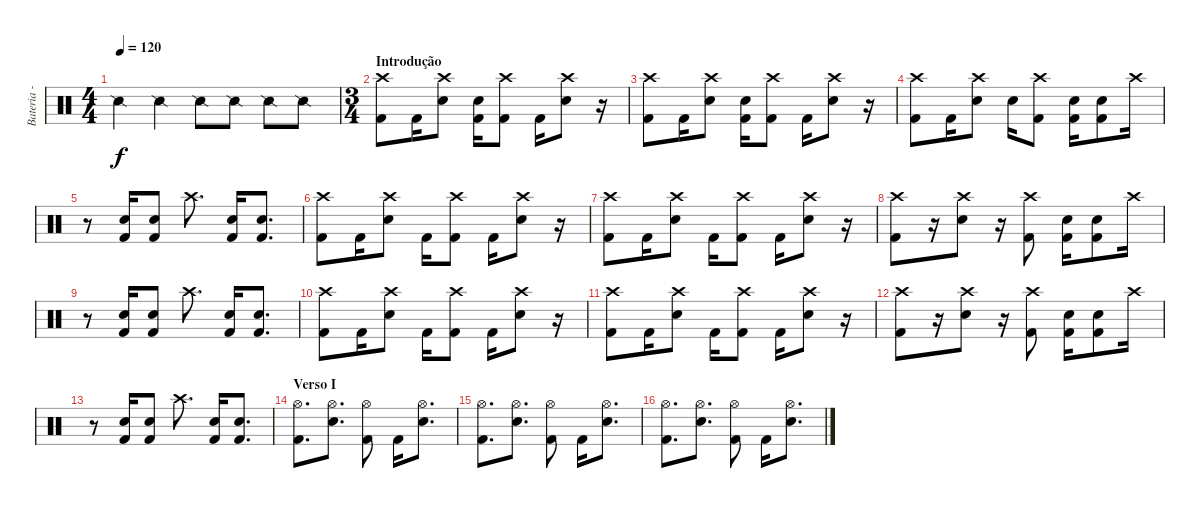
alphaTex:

\track ("Bateria - Larzon" "Bateria - ") {instrument percussion}
\staff {score}
\articulation defaults
\ts (4 4)
\tempo 120
\clef neutral
\ks c "Snare (side stick) 2".4{dy f} "Snare (side stick) 2".4 "Snare (side stick) 2".8 "Snare (side stick) 2".8 "Snare (side stick) 2".8 "Snare (side stick) 2".8
|
\ts (3 4)
\section ("" "Introdução")
("Kick (hit) 2" "Crash high (hit)").8 "Kick (hit) 2".16 ("Snare (hit) 2" "Crash high (hit)").8 ("Kick (hit) 2" "Snare (hit) 2").16 ("Kick (hit) 2" "Crash high (hit)").8 "Kick (hit) 2".16 ("Snare (hit) 2" "Crash high (hit)").8 r.16 |
("Kick (hit) 2" "Crash high (hit)").8 "Kick (hit) 2".16 ("Snare (hit) 2" "Crash high (hit)").8 ("Kick (hit) 2" "Snare (hit) 2").16 ("Kick (hit) 2" "Crash high (hit)").8 "Kick (hit) 2".16 ("Snare (hit) 2" "Crash high (hit)").8 r.16 |
("Kick (hit) 2" "Crash high (hit)").8 "Kick (hit) 2".16 ("Snare (hit) 2" "Crash high (hit)").8 "Snare (hit) 2".16 ("Kick (hit) 2" "Crash high (hit)").8 ("Snare (hit) 2" "Kick (hit) 2").16 ("Snare (hit) 2" "Kick (hit) 2").8 "Crash high (hit)".16 |
r.8 ("Snare (hit) 2" "Kick (hit) 2").16 ("Snare (hit) 2" "Kick (hit) 2").8 "Crash high (hit)".8{d} ("Snare (hit) 2" "Kick (hit) 2").16 ("Snare (hit) 2" "Kick (hit) 2").8{d} |
("Kick (hit) 2" "Crash high (hit)").8 "Kick (hit) 2".16 ("Snare (hit) 2" "Crash high (hit)").8 "Kick (hit) 2".16 ("Kick (hit) 2" "Crash high (hit)").8 "Kick (hit) 2".16 ("Snare (hit) 2" "Crash high (hit)").8 r.16 |
("Kick (hit) 2" "Crash high (hit)").8 "Kick (hit) 2".16 ("Snare (hit) 2" "Crash high (hit)").8 "Kick (hit) 2".16 ("Kick (hit) 2" "Crash high (hit)").8 "Kick (hit) 2".16 ("Snare (hit) 2" "Crash high (hit)").8 r.16 |
("Kick (hit) 2" "Crash high (hit)").8 r.16 ("Snare (hit) 2" "Crash high (hit)").8 r.16 ("Kick (hit) 2" "Crash high (hit)").8 ("Snare (hit) 2" "Kick (hit) 2").16 ("Snare (hit) 2" "Kick (hit) 2").8 "Crash high (hit)".16 |
r.8 ("Snare (hit) 2" "Kick (hit) 2").16 ("Snare (hit) 2" "Kick (hit) 2").8 "Crash high (hit)".8{d} ("Snare (hit) 2" "Kick (hit) 2").16 ("Snare (hit) 2" "Kick (hit) 2").8{d} |
("Kick (hit) 2" "Crash high (hit)").8 "Kick (hit) 2".16 ("Snare (hit) 2" "Crash high (hit)").8 "Kick (hit) 2".16 ("Kick (hit) 2" "Crash high (hit)").8 "Kick (hit) 2".16 ("Snare (hit) 2" "Crash high (hit)").8 r.16 |
("Kick (hit) 2" "Crash high (hit)").8 "Kick (hit) 2".16 ("Snare (hit) 2" "Crash high (hit)").8 "Kick (hit) 2".16 ("Kick (hit) 2" "Crash high (hit)").8 "Kick (hit) 2".16 ("Snare (hit) 2" "Crash high (hit)").8 r.16 |
("Kick (hit) 2" "Crash high (hit)").8 r.16 ("Snare (hit) 2" "Crash high (hit)").8 r.16 ("Kick (hit) 2" "Crash high (hit)").8 ("Snare (hit) 2" "Kick (hit) 2").16 ("Snare (hit) 2" "Kick (hit) 2").8 "Crash high (hit)".16 |
r.8 ("Snare (hit) 2" "Kick (hit) 2").16 ("Snare (hit) 2" "Kick (hit) 2").8 "Crash high (hit)".8{d} ("Snare (hit) 2" "Kick (hit) 2").16 ("Snare (hit) 2" "Kick (hit) 2").8{d} |
\section ("" "Verso I")
("Kick (hit) 2" "Hi-Hat (open)").8{d} ("Snare (hit) 2" "Hi-Hat (open)").8{d} ("Kick (hit) 2" "Hi-Hat (open)").8 "Kick (hit) 2".16 ("Snare (hit) 2" "Hi-Hat (open)").8{d} |
("Kick (hit) 2" "Hi-Hat (open)").8{d} ("Snare (hit) 2" "Hi-Hat (open)").8{d} ("Kick (hit) 2" "Hi-Hat (open)").8 "Kick (hit) 2".16 ("Snare (hit) 2" "Hi-Hat (open)").8{d} |
("Kick (hit) 2" "Hi-Hat (open)").8{d} ("Snare (hit) 2" "Hi-Hat (open)").8{d} ("Kick (hit) 2" "Hi-Hat (open)").8 "Kick (hit) 2".16 ("Snare (hit) 2" "Hi-Hat (open)").8{d}
